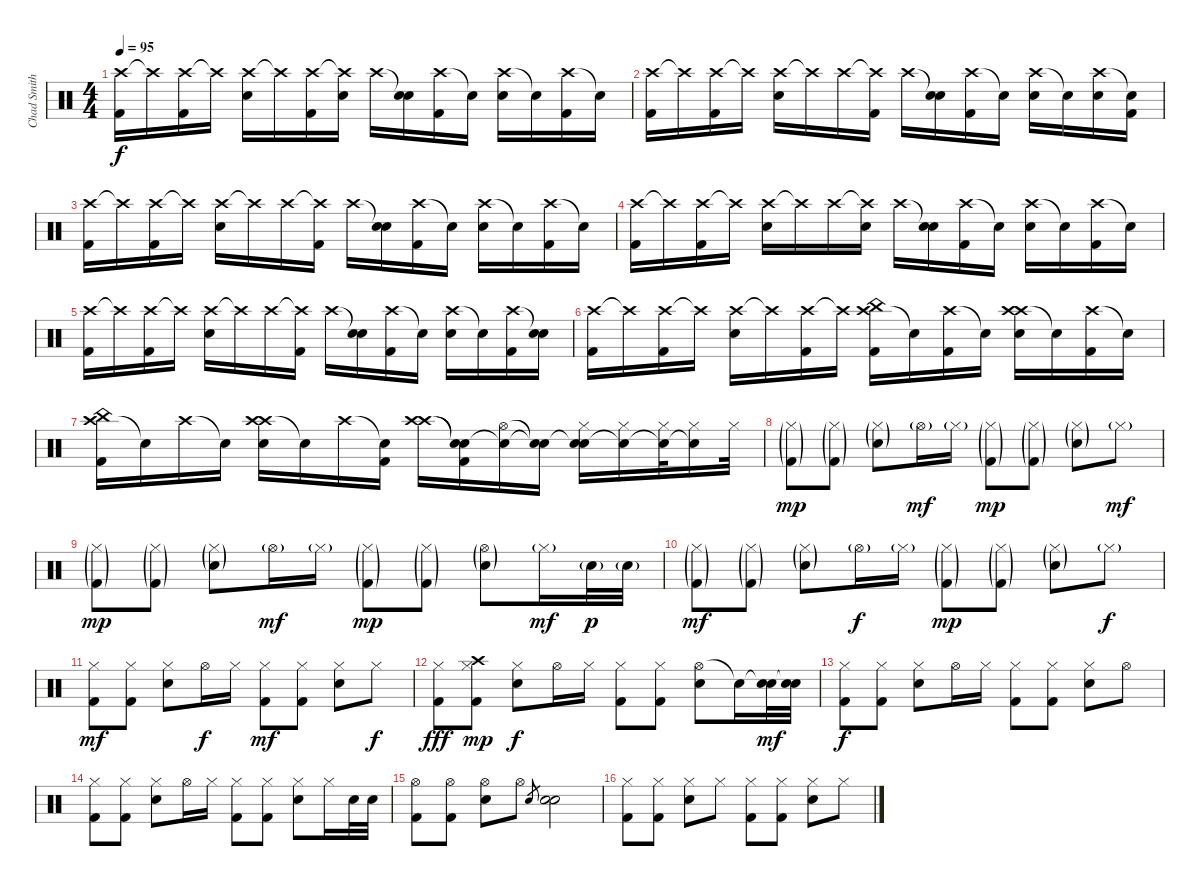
\track ("Chad Smith" "Chad Smith") {instrument percussion}
\staff {score}
\articulation defaults
\ts (4 4)
\tempo 95
\clef neutral
\ks c
("Crash high (hit)" "Kick (hit) 2").16{dy f} "Crash high (hit)"{t}.16 ("Crash high (hit)" "Kick (hit) 2").16 "Crash high (hit)"{t}.16 ("Crash high (hit)" "Snare (hit) 2").16 "Crash high (hit)"{t}.16 ("Crash high (hit)" "Kick (hit) 2").16 ("Crash high (hit)"{t} "Snare (hit) 2").16 "Crash high (hit)".16 ("Snare (hit)"{t} "Snare (hit) 2").16 ("Crash high (hit)" "Kick (hit) 2").16 "Snare (hit)"{t}.16 ("Crash high (hit)" "Snare (hit) 2").16 "Snare (hit)"{t}.16 ("Crash high (hit)" "Kick (hit) 2").16 "Snare (hit)"{t}.16 |
("Crash high (hit)" "Kick (hit) 2").16 "Crash high (hit)"{t}.16 ("Crash high (hit)" "Kick (hit) 2").16 "Crash high (hit)"{t}.16 ("Crash high (hit)" "Snare (hit) 2").16 "Crash high (hit)"{t}.16 "Crash high (hit)".16 ("Crash high (hit)"{t} "Kick (hit) 2").16 "Crash high (hit)".16 ("Snare (hit)"{t} "Snare (hit) 2").16 ("Crash high (hit)" "Kick (hit) 2").16 "Snare (hit)"{t}.16 ("Crash high (hit)" "Snare (hit) 2").16 "Snare (hit)"{t}.16 ("Crash high (hit)" "Snare (hit) 2").16 ("Snare (hit)"{t} "Kick (hit) 2").16 |
("Crash high (hit)" "Kick (hit) 2").16 "Crash high (hit)"{t}.16 ("Crash high (hit)" "Kick (hit) 2").16 "Crash high (hit)"{t}.16 ("Crash high (hit)" "Snare (hit) 2").16 "Crash high (hit)"{t}.16 "Crash high (hit)".16 ("Crash high (hit)"{t} "Kick (hit) 2").16 "Crash high (hit)".16 ("Snare (hit)"{t} "Snare (hit) 2").16 ("Crash high (hit)" "Kick (hit) 2").16 "Snare (hit)"{t}.16 ("Crash high (hit)" "Snare (hit) 2").16 "Snare (hit)"{t}.16 ("Crash high (hit)" "Kick (hit) 2").16 "Snare (hit)"{t}.16 |
("Crash high (hit)" "Kick (hit) 2").16 "Crash high (hit)"{t}.16 ("Crash high (hit)" "Kick (hit) 2").16 "Crash high (hit)"{t}.16 ("Crash high (hit)" "Snare (hit) 2").16 "Crash high (hit)"{t}.16 "Crash high (hit)".16 ("Crash high (hit)"{t} "Snare (hit) 2").16 "Crash high (hit)".16 ("Snare (hit)"{t} "Snare (hit) 2").16 ("Crash high (hit)" "Kick (hit) 2").16 "Snare (hit)"{t}.16 ("Crash high (hit)" "Snare (hit) 2").16 "Snare (hit)"{t}.16 ("Crash high (hit)" "Kick (hit) 2").16 "Snare (hit)"{t}.16 |
("Crash high (hit)" "Kick (hit) 2").16 "Crash high (hit)"{t}.16 ("Crash high (hit)" "Kick (hit) 2").16 "Crash high (hit)"{t}.16 ("Crash high (hit)" "Snare (hit) 2").16 "Crash high (hit)"{t}.16 "Crash high (hit)".16 ("Crash high (hit)"{t} "Kick (hit) 2").16 "Crash high (hit)".16 ("Snare (hit)"{t} "Snare (hit) 2").16 ("Crash high (hit)" "Kick (hit) 2").16 "Snare (hit)"{t}.16 ("Crash high (hit)" "Snare (hit) 2").16 "Snare (hit)"{t}.16 ("Crash high (hit)" "Kick (hit) 2").16 ("Snare (hit)"{t} "Snare (hit) 2").16 |
("Crash high (hit)" "Kick (hit) 2").16 "Crash high (hit)"{t}.16 ("Crash high (hit)" "Kick (hit) 2").16 "Crash high (hit)"{t}.16 ("Crash high (hit)" "Snare (hit) 2").16 "Crash high (hit)"{t}.16 ("Crash high (hit)" "Kick (hit) 2").16 "Crash high (hit)"{t}.16 ("Crash high (hit)" "China (hit)" "Kick (hit) 2").16 "Snare (hit)"{t}.16 ("Crash high (hit)" "Kick (hit) 2").16 "Snare (hit)"{t}.16 ("Crash high (hit)" "Crash high (hit)" "Snare (hit) 2").16 "Snare (hit)"{t}.16 ("Crash high (hit)" "Kick (hit) 2").16 "Snare (hit)"{t}.16 |
("Crash high (hit)" "China (hit)" "Kick (hit) 2").16 "Snare (hit)"{t}.16 "Crash high (hit)".16 "Snare (hit)"{t}.16 ("Crash high (hit)" "Crash high (hit)" "Snare (hit) 2").16 "Snare (hit)"{t}.16 "Crash high (hit)".16 ("Snare (hit)"{t} "Kick (hit) 2").16 ("Crash high (hit)" "Crash high (hit)").16 ("Snare (hit)"{t} "Snare (hit)"{t} "Kick (hit) 2").16 ("Hi-Hat (open)" "Snare (hit)"{t}).16 ("Snare (hit)"{t} "Snare (hit)"{t}).16 ("Hi-Hat (closed)" "Snare (hit)"{t} "Snare (hit) 2").16 ("Hi-Hat (closed)" "Snare (hit)"{t}).16 ("Hi-Hat (closed)" "Snare (hit)"{t}).32 ("Hi-Hat (closed)" "Snare (hit)"{t}).16 "Hi-Hat (closed)".32 |
("Hi-Hat (closed)"{g} "Kick (hit) 2"{g}).8{dy mp} ("Hi-Hat (closed)"{g} "Kick (hit) 2"{g}).8 ("Hi-Hat (closed)"{g} "Snare (hit) 2"{g}).8 "Hi-Hat (open)"{g}.16{dy mf} "Hi-Hat (closed)"{g}.16 ("Hi-Hat (closed)"{g} "Kick (hit) 2"{g}).8{dy mp} ("Hi-Hat (closed)"{g} "Kick (hit) 2"{g}).8 ("Hi-Hat (closed)"{g} "Snare (hit) 2"{g}).8 "Hi-Hat (closed)"{g}.8{dy mf} |
("Hi-Hat (closed)"{g} "Kick (hit) 2"{g}).8{dy mp} ("Hi-Hat (closed)"{g} "Kick (hit) 2"{g}).8 ("Hi-Hat (closed)"{g} "Snare (hit) 2"{g}).8 "Hi-Hat (open)"{g}.16{dy mf} "Hi-Hat (closed)"{g}.16 ("Hi-Hat (closed)"{g} "Kick (hit) 2"{g}).8{dy mp} ("Hi-Hat (closed)"{g} "Kick (hit) 2"{g}).8 ("Hi-Hat (open)"{g} "Snare (hit) 2"{g}).8 "Hi-Hat (closed)"{g}.16{dy mf} "Snare (hit) 2"{g}.32{dy p} "Snare (hit) 2"{g}.32 |
("Hi-Hat (closed)"{g} "Kick (hit) 2"{g}).8{dy mf} ("Hi-Hat (closed)"{g} "Kick (hit) 2"{g}).8 ("Hi-Hat (closed)"{g} "Snare (hit) 2"{g}).8 "Hi-Hat (open)"{g}.16{dy f} "Hi-Hat (closed)"{g}.16 ("Hi-Hat (closed)"{g} "Kick (hit) 2"{g}).8{dy mp} ("Hi-Hat (closed)"{g} "Kick (hit) 2"{g}).8 ("Hi-Hat (closed)"{g} "Snare (hit) 2"{g}).8 "Hi-Hat (closed)"{g}.8{dy f} |
("Hi-Hat (closed)" "Kick (hit) 2").8{dy mf} ("Hi-Hat (closed)" "Kick (hit) 2").8 ("Hi-Hat (closed)" "Snare (hit) 2").8 "Hi-Hat (open)".16{dy f} "Hi-Hat (closed)".16 ("Hi-Hat (closed)" "Kick (hit) 2").8{dy mf} ("Hi-Hat (closed)" "Kick (hit) 2").8 ("Hi-Hat (closed)" "Snare (hit) 2").8 "Hi-Hat (closed)".8{dy f} |
("Hi-Hat (closed)" "Kick (hit) 2").8{dy fff} ("Hi-Hat (closed)" "Crash high (hit)" "Kick (hit) 2").8{dy mp} ("Hi-Hat (closed)" "Snare (hit) 2").8{dy f} "Hi-Hat (open)".16 "Hi-Hat (closed)".16 ("Hi-Hat (closed)" "Kick (hit) 2").8 ("Hi-Hat (closed)" "Kick (hit) 2").8 ("Hi-Hat (open)" "Snare (hit) 2").8 "Snare (hit)"{t}.16 ("Snare (hit)"{t} "Snare (hit) 2").32{dy mf} ("Snare (hit)"{t} "Snare (hit) 2").32 |
("Hi-Hat (closed)" "Kick (hit) 2").8{dy f} ("Hi-Hat (closed)" "Kick (hit) 2").8 ("Hi-Hat (closed)" "Snare (hit) 2").8 "Hi-Hat (open)".16 "Hi-Hat (closed)".16 ("Hi-Hat (closed)" "Kick (hit) 2").8 ("Hi-Hat (closed)" "Kick (hit) 2").8 ("Hi-Hat (closed)" "Snare (hit) 2").8 "Hi-Hat (open)".8 |
("Hi-Hat (closed)" "Kick (hit) 2").8 ("Hi-Hat (closed)" "Kick (hit) 2").8 ("Hi-Hat (closed)" "Snare (hit) 2").8 "Hi-Hat (open)".16 "Hi-Hat (closed)".16 ("Hi-Hat (closed)" "Kick (hit) 2").8 ("Hi-Hat (closed)" "Kick (hit) 2").8 ("Hi-Hat (closed)" "Snare (hit) 2").8 "Hi-Hat (closed)".16 "Snare (hit) 2".32 "Snare (hit) 2".32 |
("Hi-Hat (open)" "Kick (hit) 2").8 ("Hi-Hat (open)" "Kick (hit) 2").8 ("Hi-Hat (open)" "Snare (hit) 2").8 "Hi-Hat (open)".8 "Snare (hit) 2".8{gr} ("Snare (hit) 2" "Snare (hit) 2").2 |
("Hi-Hat (closed)" "Kick (hit) 2").8 ("Hi-Hat (closed)" "Kick (hit) 2").8 ("Hi-Hat (closed)" "Snare (hit) 2").8 "Hi-Hat (closed)".8 ("Hi-Hat (closed)" "Kick (hit) 2").8 ("Hi-Hat (closed)" "Kick (hit) 2").8 ("Hi-Hat (closed)" "Snare (hit) 2").8 "Hi-Hat (closed)".8
